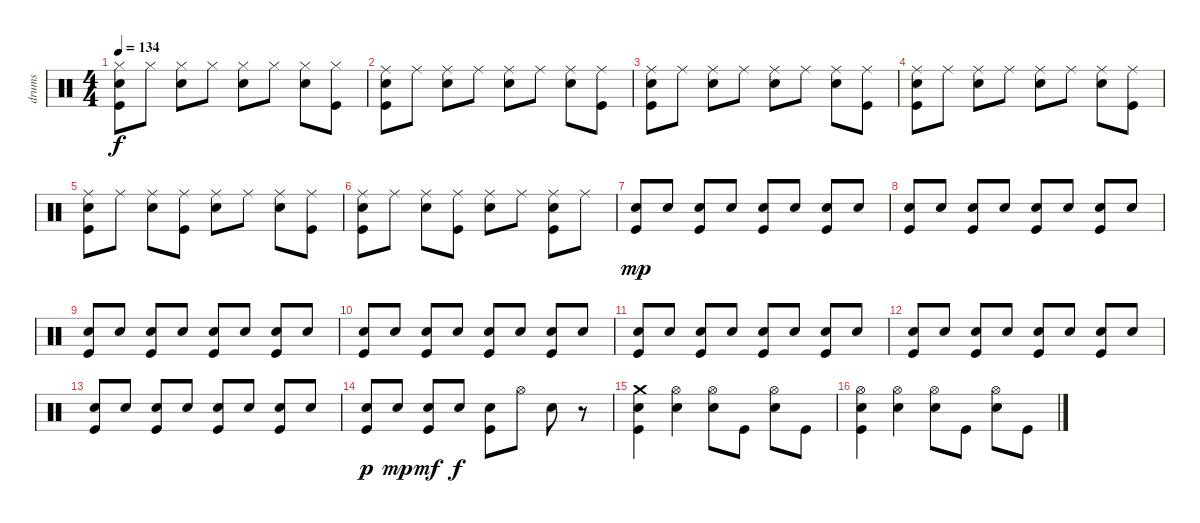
\track ("drums" "drums") {instrument percussion}
\staff {score}
\articulation defaults
\ts (4 4)
\tempo 134
\clef neutral
\ks c
("Hi-Hat (closed)" "Snare (hit) 2" "Kick (hit)").8{dy f} "Hi-Hat (closed)".8 ("Hi-Hat (closed)" "Snare (hit) 2").8 "Hi-Hat (closed)".8 ("Hi-Hat (closed)" "Snare (hit) 2").8 "Hi-Hat (closed)".8 ("Hi-Hat (closed)" "Snare (hit) 2").8 ("Hi-Hat (closed)" "Kick (hit)").8 |
("Ride (middle)" "Snare (hit) 2" "Kick (hit)").8 "Ride (middle)".8 ("Ride (middle)" "Snare (hit) 2").8 "Ride (middle)".8 ("Ride (middle)" "Snare (hit) 2").8 "Ride (middle)".8 ("Ride (middle)" "Snare (hit) 2").8 ("Ride (middle)" "Kick (hit)").8 |
("Ride (middle)" "Snare (hit) 2" "Kick (hit)").8 "Ride (middle)".8 ("Ride (middle)" "Snare (hit) 2").8 "Ride (middle)".8 ("Ride (middle)" "Snare (hit) 2").8 "Ride (middle)".8 ("Ride (middle)" "Snare (hit) 2").8 ("Ride (middle)" "Kick (hit)").8 |
("Ride (middle)" "Snare (hit) 2" "Kick (hit)").8 "Ride (middle)".8 ("Ride (middle)" "Snare (hit) 2").8 "Ride (middle)".8 ("Ride (middle)" "Snare (hit) 2").8 "Ride (middle)".8 ("Ride (middle)" "Snare (hit) 2").8 ("Ride (middle)" "Kick (hit)").8 |
("Ride (middle)" "Snare (hit) 2" "Kick (hit)").8 "Ride (middle)".8 ("Ride (middle)" "Snare (hit) 2").8 ("Ride (middle)" "Kick (hit)").8 ("Ride (middle)" "Snare (hit) 2").8 "Ride (middle)".8 ("Ride (middle)" "Snare (hit) 2").8 ("Ride (middle)" "Kick (hit)").8 |
("Ride (middle)" "Snare (hit) 2" "Kick (hit)").8 "Ride (middle)".8 ("Ride (middle)" "Snare (hit) 2").8 ("Ride (middle)" "Kick (hit)").8 ("Ride (middle)" "Snare (hit) 2").8 "Ride (middle)".8 ("Ride (middle)" "Snare (hit) 2" "Kick (hit)").8 "Ride (middle)".8 |
("Snare (hit) 2" "Kick (hit)").8{dy mp} "Snare (hit) 2".8 ("Snare (hit) 2" "Kick (hit)").8 "Snare (hit) 2".8 ("Snare (hit) 2" "Kick (hit)").8 "Snare (hit) 2".8 ("Snare (hit) 2" "Kick (hit)").8 "Snare (hit) 2".8 |
("Snare (hit) 2" "Kick (hit)").8 "Snare (hit) 2".8 ("Snare (hit) 2" "Kick (hit)").8 "Snare (hit) 2".8 ("Snare (hit) 2" "Kick (hit)").8 "Snare (hit) 2".8 ("Snare (hit) 2" "Kick (hit)").8 "Snare (hit) 2".8 |
("Snare (hit) 2" "Kick (hit)").8 "Snare (hit) 2".8 ("Snare (hit) 2" "Kick (hit)").8 "Snare (hit) 2".8 ("Snare (hit) 2" "Kick (hit)").8 "Snare (hit) 2".8 ("Snare (hit) 2" "Kick (hit)").8 "Snare (hit) 2".8 |
("Snare (hit) 2" "Kick (hit)").8 "Snare (hit) 2".8 ("Snare (hit) 2" "Kick (hit)").8 "Snare (hit) 2".8 ("Snare (hit) 2" "Kick (hit)").8 "Snare (hit) 2".8 ("Snare (hit) 2" "Kick (hit)").8 "Snare (hit) 2".8 |
("Snare (hit) 2" "Kick (hit)").8 "Snare (hit) 2".8 ("Snare (hit) 2" "Kick (hit)").8 "Snare (hit) 2".8 ("Snare (hit) 2" "Kick (hit)").8 "Snare (hit) 2".8 ("Snare (hit) 2" "Kick (hit)").8 "Snare (hit) 2".8 |
("Snare (hit) 2" "Kick (hit)").8 "Snare (hit) 2".8 ("Snare (hit) 2" "Kick (hit)").8 "Snare (hit) 2".8 ("Snare (hit) 2" "Kick (hit)").8 "Snare (hit) 2".8 ("Snare (hit) 2" "Kick (hit)").8 "Snare (hit) 2".8 |
("Snare (hit) 2" "Kick (hit)").8 "Snare (hit) 2".8 ("Snare (hit) 2" "Kick (hit)").8 "Snare (hit) 2".8 ("Snare (hit) 2" "Kick (hit)").8 "Snare (hit) 2".8 ("Snare (hit) 2" "Kick (hit)").8 "Snare (hit) 2".8 |
("Snare (hit) 2" "Kick (hit)").8{dy p} "Snare (hit) 2".8{dy mp} ("Snare (hit) 2" "Kick (hit)").8{dy mf} "Snare (hit) 2".8{dy f} ("Snare (hit) 2" "Kick (hit)").8 "Hi-Hat (open)".8 "Snare (hit) 2".8 r.8 |
("Crash medium (hit)" "Snare (hit) 2" "Kick (hit)").4 ("Hi-Hat (open)" "Snare (hit) 2").4 ("Hi-Hat (open)" "Snare (hit) 2").8 "Kick (hit)".8 ("Hi-Hat (open)" "Snare (hit) 2").8 "Kick (hit)".8 |
("Hi-Hat (open)" "Snare (hit) 2" "Kick (hit)").4 ("Hi-Hat (open)" "Snare (hit) 2").4 ("Hi-Hat (open)" "Snare (hit) 2").8 "Kick (hit)".8 ("Hi-Hat (open)" "Snare (hit) 2").8 "Kick (hit)".8
